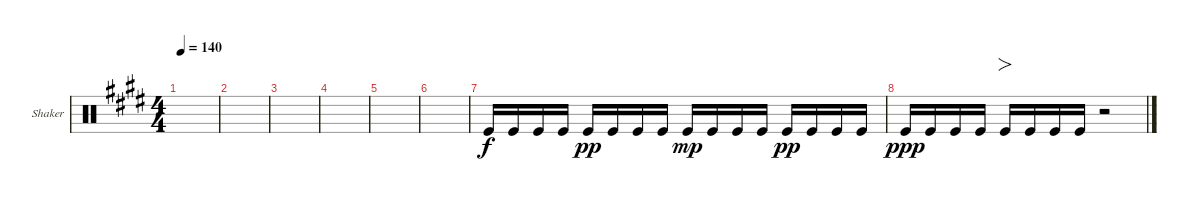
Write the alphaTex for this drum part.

\defaultSystemsLayout 4
\bracketExtendMode groupsimilarinstruments
\firstSystemTrackNameOrientation horizontal
\otherSystemsTrackNameOrientation horizontal
\track ("Shaker" "Shaker") {instrument percussion}
\staff {score}
\articulation defaults
\ts (4 4)
\tempo 140
\clef neutral
\scale
0.333333
\ks e
|
\scale
0.333333 |
\scale
0.333333 |
\scale
0.333333 |
\scale
0.333333 |
\scale
0.333333 |
\scale
0.333333 "Kick (hit)".16 "Kick (hit)".16 "Kick (hit)".16 "Kick (hit)".16 "Kick (hit)".16{dy pp} "Kick (hit)".16 "Kick (hit)".16 "Kick (hit)".16 "Kick (hit)".16{dy mp} "Kick (hit)".16 "Kick (hit)".16 "Kick (hit)".16 "Kick (hit)".16{dy pp} "Kick (hit)".16 "Kick (hit)".16 "Kick (hit)".16 |
\scale
0.333333 "Kick (hit)".16{dy ppp} "Kick (hit)".16 "Kick (hit)".16 "Kick (hit)".16 "Kick (hit)".16{fo} "Kick (hit)".16 "Kick (hit)".16 "Kick (hit)".16 r.2 |
\scale
0.333333 |
\scale
0.333333 |
\scale
0.333333 |
\scale
0.333333 |
\scale
0.333333 |
\scale
0.333333 |
\scale
0.333333 |
\scale
0.333333
